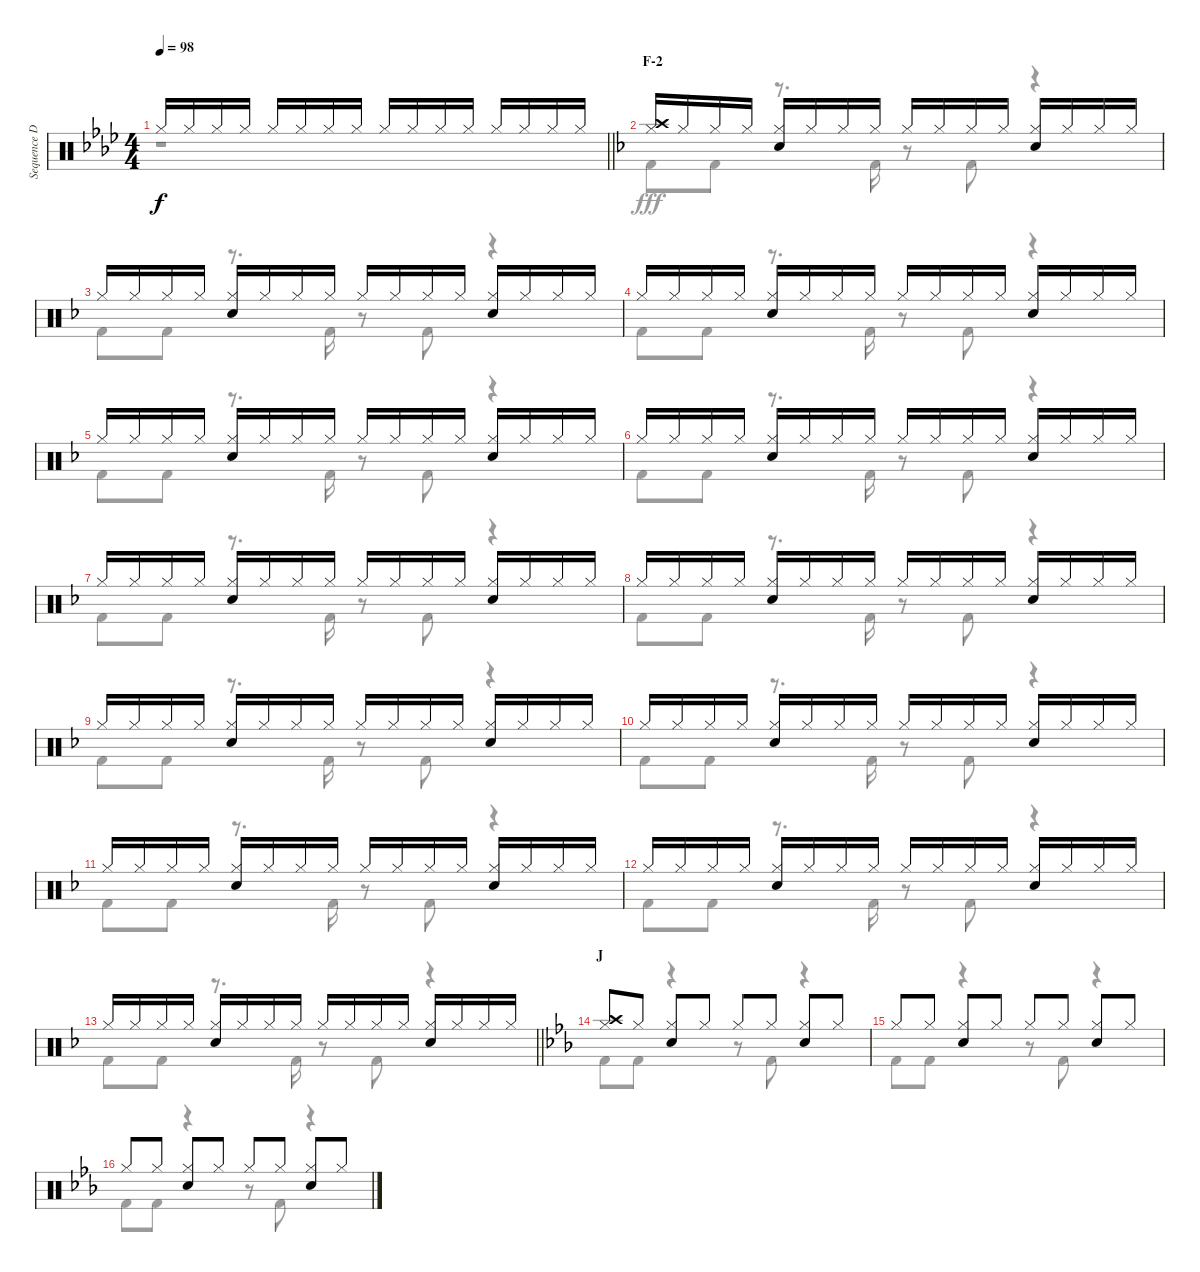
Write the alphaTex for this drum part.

\track ("Sequence Drums I" "Sequence D") {instrument percussion}
\staff {score}
\articulation defaults
\voice
\ts (4 4)
\tempo 98
\clef neutral
\barLineRight lightlight
\ks ab "Hi-Hat (closed)".16{dy f} "Hi-Hat (closed)".16 "Hi-Hat (closed)".16 "Hi-Hat (closed)".16 "Hi-Hat (closed)".16 "Hi-Hat (closed)".16 "Hi-Hat (closed)".16 "Hi-Hat (closed)".16 "Hi-Hat (closed)".16 "Hi-Hat (closed)".16 "Hi-Hat (closed)".16 "Hi-Hat (closed)".16 "Hi-Hat (closed)".16 "Hi-Hat (closed)".16 "Hi-Hat (closed)".16 "Hi-Hat (closed)".16
|
\section ("" "F-2")
\ks f
("Crash high (hit)" "Hi-Hat (closed)").16 "Hi-Hat (closed)".16 "Hi-Hat (closed)".16 "Hi-Hat (closed)".16 ("Hi-Hat (closed)" "Electric Snare (hit)").16 "Hi-Hat (closed)".16 "Hi-Hat (closed)".16 "Hi-Hat (closed)".16 "Hi-Hat (closed)".16 "Hi-Hat (closed)".16 "Hi-Hat (closed)".16 "Hi-Hat (closed)".16 ("Hi-Hat (closed)" "Electric Snare (hit)").16 "Hi-Hat (closed)".16 "Hi-Hat (closed)".16 "Hi-Hat (closed)".16 |
"Hi-Hat (closed)".16 "Hi-Hat (closed)".16 "Hi-Hat (closed)".16 "Hi-Hat (closed)".16 ("Hi-Hat (closed)" "Electric Snare (hit)").16 "Hi-Hat (closed)".16 "Hi-Hat (closed)".16 "Hi-Hat (closed)".16 "Hi-Hat (closed)".16 "Hi-Hat (closed)".16 "Hi-Hat (closed)".16 "Hi-Hat (closed)".16 ("Hi-Hat (closed)" "Electric Snare (hit)").16 "Hi-Hat (closed)".16 "Hi-Hat (closed)".16 "Hi-Hat (closed)".16 |
"Hi-Hat (closed)".16 "Hi-Hat (closed)".16 "Hi-Hat (closed)".16 "Hi-Hat (closed)".16 ("Hi-Hat (closed)" "Electric Snare (hit)").16 "Hi-Hat (closed)".16 "Hi-Hat (closed)".16 "Hi-Hat (closed)".16 "Hi-Hat (closed)".16 "Hi-Hat (closed)".16 "Hi-Hat (closed)".16 "Hi-Hat (closed)".16 ("Hi-Hat (closed)" "Electric Snare (hit)").16 "Hi-Hat (closed)".16 "Hi-Hat (closed)".16 "Hi-Hat (closed)".16 |
"Hi-Hat (closed)".16 "Hi-Hat (closed)".16 "Hi-Hat (closed)".16 "Hi-Hat (closed)".16 ("Hi-Hat (closed)" "Electric Snare (hit)").16 "Hi-Hat (closed)".16 "Hi-Hat (closed)".16 "Hi-Hat (closed)".16 "Hi-Hat (closed)".16 "Hi-Hat (closed)".16 "Hi-Hat (closed)".16 "Hi-Hat (closed)".16 ("Hi-Hat (closed)" "Electric Snare (hit)").16 "Hi-Hat (closed)".16 "Hi-Hat (closed)".16 "Hi-Hat (closed)".16 |
"Hi-Hat (closed)".16 "Hi-Hat (closed)".16 "Hi-Hat (closed)".16 "Hi-Hat (closed)".16 ("Hi-Hat (closed)" "Electric Snare (hit)").16 "Hi-Hat (closed)".16 "Hi-Hat (closed)".16 "Hi-Hat (closed)".16 "Hi-Hat (closed)".16 "Hi-Hat (closed)".16 "Hi-Hat (closed)".16 "Hi-Hat (closed)".16 ("Hi-Hat (closed)" "Electric Snare (hit)").16 "Hi-Hat (closed)".16 "Hi-Hat (closed)".16 "Hi-Hat (closed)".16 |
"Hi-Hat (closed)".16 "Hi-Hat (closed)".16 "Hi-Hat (closed)".16 "Hi-Hat (closed)".16 ("Hi-Hat (closed)" "Electric Snare (hit)").16 "Hi-Hat (closed)".16 "Hi-Hat (closed)".16 "Hi-Hat (closed)".16 "Hi-Hat (closed)".16 "Hi-Hat (closed)".16 "Hi-Hat (closed)".16 "Hi-Hat (closed)".16 ("Hi-Hat (closed)" "Electric Snare (hit)").16 "Hi-Hat (closed)".16 "Hi-Hat (closed)".16 "Hi-Hat (closed)".16 |
"Hi-Hat (closed)".16 "Hi-Hat (closed)".16 "Hi-Hat (closed)".16 "Hi-Hat (closed)".16 ("Hi-Hat (closed)" "Electric Snare (hit)").16 "Hi-Hat (closed)".16 "Hi-Hat (closed)".16 "Hi-Hat (closed)".16 "Hi-Hat (closed)".16 "Hi-Hat (closed)".16 "Hi-Hat (closed)".16 "Hi-Hat (closed)".16 ("Hi-Hat (closed)" "Electric Snare (hit)").16 "Hi-Hat (closed)".16 "Hi-Hat (closed)".16 "Hi-Hat (closed)".16 |
"Hi-Hat (closed)".16 "Hi-Hat (closed)".16 "Hi-Hat (closed)".16 "Hi-Hat (closed)".16 ("Hi-Hat (closed)" "Electric Snare (hit)").16 "Hi-Hat (closed)".16 "Hi-Hat (closed)".16 "Hi-Hat (closed)".16 "Hi-Hat (closed)".16 "Hi-Hat (closed)".16 "Hi-Hat (closed)".16 "Hi-Hat (closed)".16 ("Hi-Hat (closed)" "Electric Snare (hit)").16 "Hi-Hat (closed)".16 "Hi-Hat (closed)".16 "Hi-Hat (closed)".16 |
"Hi-Hat (closed)".16 "Hi-Hat (closed)".16 "Hi-Hat (closed)".16 "Hi-Hat (closed)".16 ("Hi-Hat (closed)" "Electric Snare (hit)").16 "Hi-Hat (closed)".16 "Hi-Hat (closed)".16 "Hi-Hat (closed)".16 "Hi-Hat (closed)".16 "Hi-Hat (closed)".16 "Hi-Hat (closed)".16 "Hi-Hat (closed)".16 ("Hi-Hat (closed)" "Electric Snare (hit)").16 "Hi-Hat (closed)".16 "Hi-Hat (closed)".16 "Hi-Hat (closed)".16 |
"Hi-Hat (closed)".16 "Hi-Hat (closed)".16 "Hi-Hat (closed)".16 "Hi-Hat (closed)".16 ("Hi-Hat (closed)" "Electric Snare (hit)").16 "Hi-Hat (closed)".16 "Hi-Hat (closed)".16 "Hi-Hat (closed)".16 "Hi-Hat (closed)".16 "Hi-Hat (closed)".16 "Hi-Hat (closed)".16 "Hi-Hat (closed)".16 ("Hi-Hat (closed)" "Electric Snare (hit)").16 "Hi-Hat (closed)".16 "Hi-Hat (closed)".16 "Hi-Hat (closed)".16 |
"Hi-Hat (closed)".16 "Hi-Hat (closed)".16 "Hi-Hat (closed)".16 "Hi-Hat (closed)".16 ("Hi-Hat (closed)" "Electric Snare (hit)").16 "Hi-Hat (closed)".16 "Hi-Hat (closed)".16 "Hi-Hat (closed)".16 "Hi-Hat (closed)".16 "Hi-Hat (closed)".16 "Hi-Hat (closed)".16 "Hi-Hat (closed)".16 ("Hi-Hat (closed)" "Electric Snare (hit)").16 "Hi-Hat (closed)".16 "Hi-Hat (closed)".16 "Hi-Hat (closed)".16 |
\barLineRight lightlight "Hi-Hat (closed)".16 "Hi-Hat (closed)".16 "Hi-Hat (closed)".16 "Hi-Hat (closed)".16
("Hi-Hat (closed)" "Electric Snare (hit)").16 "Hi-Hat (closed)".16 "Hi-Hat (closed)".16 "Hi-Hat (closed)".16 "Hi-Hat (closed)".16 "Hi-Hat (closed)".16 "Hi-Hat (closed)".16 "Hi-Hat (closed)".16 ("Hi-Hat (closed)" "Electric Snare (hit)").16 "Hi-Hat (closed)".16 "Hi-Hat (closed)".16 "Hi-Hat (closed)".16 |
\section ("" "J")
\ks eb
("Crash high (hit)" "Hi-Hat (closed)").8 "Hi-Hat (closed)".8 ("Hi-Hat (closed)" "Electric Snare (hit)").8 "Hi-Hat (closed)".8 "Hi-Hat (closed)".8 "Hi-Hat (closed)".8 ("Hi-Hat (closed)" "Electric Snare (hit)").8 "Hi-Hat (closed)".8 |
"Hi-Hat (closed)".8 "Hi-Hat (closed)".8 ("Hi-Hat (closed)" "Electric Snare (hit)").8 "Hi-Hat (closed)".8 "Hi-Hat (closed)".8 "Hi-Hat (closed)".8 ("Hi-Hat (closed)" "Electric Snare (hit)").8 "Hi-Hat (closed)".8 |
"Hi-Hat (closed)".8 "Hi-Hat (closed)".8 ("Hi-Hat (closed)" "Electric Snare (hit)").8 "Hi-Hat (closed)".8 "Hi-Hat (closed)".8 "Hi-Hat (closed)".8 ("Hi-Hat (closed)" "Electric Snare (hit)").8 "Hi-Hat (closed)".8
\voice
\clef neutral
\ottava regular
\simile none
\barLineRight lightlight
\ks ab
r.1{dy fff} |
\ks f "Kick (hit) 2".8 "Kick (hit) 2".8
r.8{d} "Kick (hit) 2".16 r.8 "Kick (hit) 2".8 r.4 |
"Kick (hit) 2".8 "Kick (hit) 2".8 r.8{d} "Kick (hit) 2".16 r.8 "Kick (hit) 2".8 r.4 |
"Kick (hit) 2".8 "Kick (hit) 2".8 r.8{d} "Kick (hit) 2".16 r.8 "Kick (hit) 2".8 r.4 |
"Kick (hit) 2".8 "Kick (hit) 2".8 r.8{d} "Kick (hit) 2".16 r.8 "Kick (hit) 2".8 r.4 |
"Kick (hit) 2".8 "Kick (hit) 2".8 r.8{d} "Kick (hit) 2".16 r.8 "Kick (hit) 2".8 r.4 |
"Kick (hit) 2".8 "Kick (hit) 2".8 r.8{d} "Kick (hit) 2".16 r.8 "Kick (hit) 2".8 r.4 |
"Kick (hit) 2".8 "Kick (hit) 2".8 r.8{d} "Kick (hit) 2".16 r.8 "Kick (hit) 2".8 r.4 |
"Kick (hit) 2".8 "Kick (hit) 2".8 r.8{d} "Kick (hit) 2".16 r.8 "Kick (hit) 2".8 r.4 |
"Kick (hit) 2".8 "Kick (hit) 2".8 r.8{d} "Kick (hit) 2".16 r.8 "Kick (hit) 2".8 r.4 |
"Kick (hit) 2".8 "Kick (hit) 2".8 r.8{d} "Kick (hit) 2".16 r.8 "Kick (hit) 2".8 r.4 |
"Kick (hit) 2".8 "Kick (hit) 2".8 r.8{d} "Kick (hit) 2".16 r.8 "Kick (hit) 2".8 r.4 |
\barLineRight lightlight "Kick (hit) 2".8 "Kick (hit) 2".8
r.8{d} "Kick (hit) 2".16 r.8 "Kick (hit) 2".8 r.4 |
\ks eb "Kick (hit) 2".8 "Kick (hit) 2".8
r.4 r.8 "Kick (hit) 2".8 r.4 |
"Kick (hit) 2".8 "Kick (hit) 2".8 r.4 r.8 "Kick (hit) 2".8 r.4 |
"Kick (hit) 2".8 "Kick (hit) 2".8 r.4 r.8 "Kick (hit) 2".8 r.4
